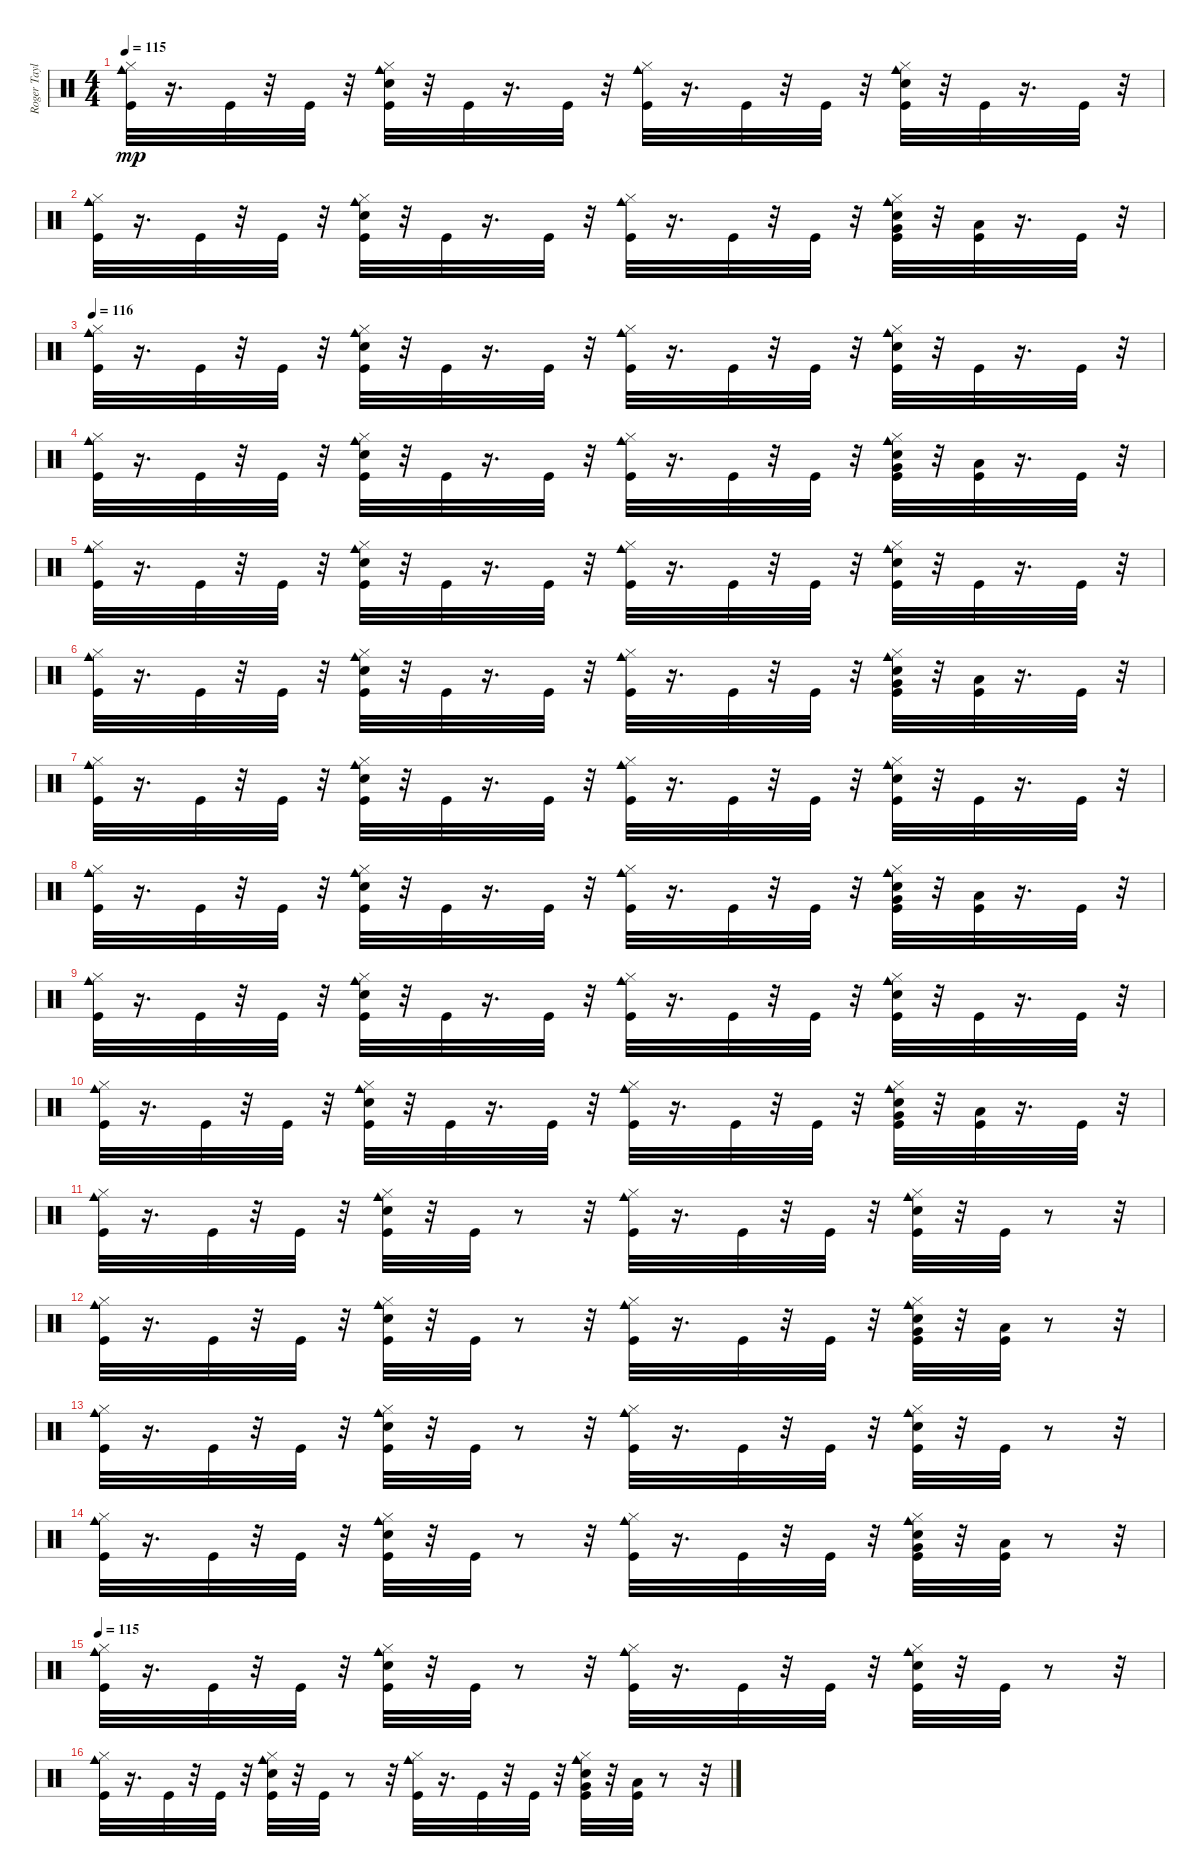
\track ("Roger Taylor" "Roger Tayl") {instrument percussion}
\staff {score}
\articulation defaults
\ts (4 4)
\tempo 115
\clef neutral
\ks c
("Cowbell medium (hit)" "Hi-Hat (closed)" "Kick (hit)").32{dy mp} r.16{d} "Kick (hit)".32 r.32 "Kick (hit)".32 r.32 ("Snare (hit)" "Cowbell medium (hit)" "Hi-Hat (closed)" "Kick (hit)").32 r.32 "Kick (hit)".32 r.16{d} "Kick (hit)".32 r.32 ("Cowbell medium (hit)" "Hi-Hat (closed)" "Kick (hit)").32 r.16{d} "Kick (hit)".32 r.32 "Kick (hit)".32 r.32 ("Hand Clap (hit)" "Cowbell medium (hit)" "Hi-Hat (closed)" "Kick (hit)").32 r.32 "Kick (hit)".32 r.16{d} "Kick (hit)".32 r.32 |
("Cowbell medium (hit)" "Hi-Hat (closed)" "Kick (hit)").32 r.16{d} "Kick (hit)".32 r.32 "Kick (hit)".32 r.32 ("Snare (hit)" "Cowbell medium (hit)" "Hi-Hat (closed)" "Kick (hit)").32 r.32 "Kick (hit)".32 r.16{d} "Kick (hit)".32 r.32 ("Cowbell medium (hit)" "Hi-Hat (closed)" "Kick (hit)").32 r.16{d} "Kick (hit)".32 r.32 "Kick (hit)".32 r.32 ("Very Low Tom (hit)" "Hand Clap (hit)" "Cowbell medium (hit)" "Hi-Hat (closed)" "Kick (hit)").32 r.32 ("Low Floor Tom (hit)" "Kick (hit)").32 r.16{d} "Kick (hit)".32 r.32 |
\tempo 116
("Cowbell medium (hit)" "Hi-Hat (closed)" "Kick (hit)").32 r.16{d} "Kick (hit)".32 r.32 "Kick (hit)".32 r.32 ("Snare (hit)" "Cowbell medium (hit)" "Hi-Hat (closed)" "Kick (hit)").32 r.32 "Kick (hit)".32 r.16{d} "Kick (hit)".32 r.32 ("Cowbell medium (hit)" "Hi-Hat (closed)" "Kick (hit)").32 r.16{d} "Kick (hit)".32 r.32 "Kick (hit)".32 r.32 ("Hand Clap (hit)" "Cowbell medium (hit)" "Hi-Hat (closed)" "Kick (hit)").32 r.32 "Kick (hit)".32 r.16{d} "Kick (hit)".32 r.32 |
("Cowbell medium (hit)" "Hi-Hat (closed)" "Kick (hit)").32 r.16{d} "Kick (hit)".32 r.32 "Kick (hit)".32 r.32 ("Snare (hit)" "Cowbell medium (hit)" "Hi-Hat (closed)" "Kick (hit)").32 r.32 "Kick (hit)".32 r.16{d} "Kick (hit)".32 r.32 ("Cowbell medium (hit)" "Hi-Hat (closed)" "Kick (hit)").32 r.16{d} "Kick (hit)".32 r.32 "Kick (hit)".32 r.32 ("Very Low Tom (hit)" "Hand Clap (hit)" "Cowbell medium (hit)" "Hi-Hat (closed)" "Kick (hit)").32 r.32 ("Low Floor Tom (hit)" "Kick (hit)").32 r.16{d} "Kick (hit)".32 r.32 |
("Cowbell medium (hit)" "Hi-Hat (closed)" "Kick (hit)").32 r.16{d} "Kick (hit)".32 r.32 "Kick (hit)".32 r.32 ("Snare (hit)" "Cowbell medium (hit)" "Hi-Hat (closed)" "Kick (hit)").32 r.32 "Kick (hit)".32 r.16{d} "Kick (hit)".32 r.32 ("Cowbell medium (hit)" "Hi-Hat (closed)" "Kick (hit)").32 r.16{d} "Kick (hit)".32 r.32 "Kick (hit)".32 r.32 ("Snare (hit)" "Cowbell medium (hit)" "Hi-Hat (closed)" "Kick (hit)").32 r.32 "Kick (hit)".32 r.16{d} "Kick (hit)".32 r.32 |
("Cowbell medium (hit)" "Hi-Hat (closed)" "Kick (hit)").32 r.16{d} "Kick (hit)".32 r.32 "Kick (hit)".32 r.32 ("Snare (hit)" "Cowbell medium (hit)" "Hi-Hat (closed)" "Kick (hit)").32 r.32 "Kick (hit)".32 r.16{d} "Kick (hit)".32 r.32 ("Cowbell medium (hit)" "Hi-Hat (closed)" "Kick (hit)").32 r.16{d} "Kick (hit)".32 r.32 "Kick (hit)".32 r.32 ("Very Low Tom (hit)" "Hand Clap (hit)" "Cowbell medium (hit)" "Hi-Hat (closed)" "Kick (hit)").32 r.32 ("Low Floor Tom (hit)" "Kick (hit)").32 r.16{d} "Kick (hit)".32 r.32 |
("Cowbell medium (hit)" "Hi-Hat (closed)" "Kick (hit)").32 r.16{d} "Kick (hit)".32 r.32 "Kick (hit)".32 r.32 ("Snare (hit)" "Cowbell medium (hit)" "Hi-Hat (closed)" "Kick (hit)").32 r.32 "Kick (hit)".32 r.16{d} "Kick (hit)".32 r.32 ("Cowbell medium (hit)" "Hi-Hat (closed)" "Kick (hit)").32 r.16{d} "Kick (hit)".32 r.32 "Kick (hit)".32 r.32 ("Snare (hit)" "Cowbell medium (hit)" "Hi-Hat (closed)" "Kick (hit)").32 r.32 "Kick (hit)".32 r.16{d} "Kick (hit)".32 r.32 |
("Cowbell medium (hit)" "Hi-Hat (closed)" "Kick (hit)").32 r.16{d} "Kick (hit)".32 r.32 "Kick (hit)".32 r.32 ("Snare (hit)" "Cowbell medium (hit)" "Hi-Hat (closed)" "Kick (hit)").32 r.32 "Kick (hit)".32 r.16{d} "Kick (hit)".32 r.32 ("Cowbell medium (hit)" "Hi-Hat (closed)" "Kick (hit)").32 r.16{d} "Kick (hit)".32 r.32 "Kick (hit)".32 r.32 ("Very Low Tom (hit)" "Hand Clap (hit)" "Cowbell medium (hit)" "Hi-Hat (closed)" "Kick (hit)").32 r.32 ("Low Floor Tom (hit)" "Kick (hit)").32 r.16{d} "Kick (hit)".32 r.32 |
("Cowbell medium (hit)" "Hi-Hat (closed)" "Kick (hit)").32 r.16{d} "Kick (hit)".32 r.32 "Kick (hit)".32 r.32 ("Snare (hit)" "Cowbell medium (hit)" "Hi-Hat (closed)" "Kick (hit)").32 r.32 "Kick (hit)".32 r.16{d} "Kick (hit)".32 r.32 ("Cowbell medium (hit)" "Hi-Hat (closed)" "Kick (hit)").32 r.16{d} "Kick (hit)".32 r.32 "Kick (hit)".32 r.32 ("Snare (hit)" "Cowbell medium (hit)" "Hi-Hat (closed)" "Kick (hit)").32 r.32 "Kick (hit)".32 r.16{d} "Kick (hit)".32 r.32 |
("Cowbell medium (hit)" "Hi-Hat (closed)" "Kick (hit)").32 r.16{d} "Kick (hit)".32 r.32 "Kick (hit)".32 r.32 ("Snare (hit)" "Cowbell medium (hit)" "Hi-Hat (closed)" "Kick (hit)").32 r.32 "Kick (hit)".32 r.16{d} "Kick (hit)".32 r.32 ("Cowbell medium (hit)" "Hi-Hat (closed)" "Kick (hit)").32 r.16{d} "Kick (hit)".32 r.32 "Kick (hit)".32 r.32 ("Very Low Tom (hit)" "Snare (hit)" "Cowbell medium (hit)" "Hi-Hat (closed)" "Kick (hit)").32 r.32 ("Low Floor Tom (hit)" "Kick (hit)").32 r.16{d} "Kick (hit)".32 r.32 |
("Cowbell medium (hit)" "Hi-Hat (closed)" "Kick (hit)").32 r.16{d} "Kick (hit)".32 r.32 "Kick (hit)".32 r.32 ("Snare (hit)" "Cowbell medium (hit)" "Hi-Hat (closed)" "Kick (hit)").32 r.32 "Kick (hit)".32 r.8 r.32 ("Cowbell medium (hit)" "Hi-Hat (closed)" "Kick (hit)").32 r.16{d} "Kick (hit)".32 r.32 "Kick (hit)".32 r.32 ("Hand Clap (hit)" "Cowbell medium (hit)" "Hi-Hat (closed)" "Kick (hit)").32 r.32 "Kick (hit)".32 r.8 r.32 |
("Cowbell medium (hit)" "Hi-Hat (closed)" "Kick (hit)").32 r.16{d} "Kick (hit)".32 r.32 "Kick (hit)".32 r.32 ("Snare (hit)" "Cowbell medium (hit)" "Hi-Hat (closed)" "Kick (hit)").32 r.32 "Kick (hit)".32 r.8 r.32 ("Cowbell medium (hit)" "Hi-Hat (closed)" "Kick (hit)").32 r.16{d} "Kick (hit)".32 r.32 "Kick (hit)".32 r.32 ("Very Low Tom (hit)" "Snare (hit)" "Cowbell medium (hit)" "Hi-Hat (closed)" "Kick (hit)").32 r.32 ("Low Floor Tom (hit)" "Kick (hit)").32 r.8 r.32 |
("Cowbell medium (hit)" "Hi-Hat (closed)" "Kick (hit)").32 r.16{d} "Kick (hit)".32 r.32 "Kick (hit)".32 r.32 ("Snare (hit)" "Cowbell medium (hit)" "Hi-Hat (closed)" "Kick (hit)").32 r.32 "Kick (hit)".32 r.8 r.32 ("Cowbell medium (hit)" "Hi-Hat (closed)" "Kick (hit)").32 r.16{d} "Kick (hit)".32 r.32 "Kick (hit)".32 r.32 ("Snare (hit)" "Cowbell medium (hit)" "Hi-Hat (closed)" "Kick (hit)").32 r.32 "Kick (hit)".32 r.8 r.32 |
("Cowbell medium (hit)" "Hi-Hat (closed)" "Kick (hit)").32 r.16{d} "Kick (hit)".32 r.32 "Kick (hit)".32 r.32 ("Snare (hit)" "Cowbell medium (hit)" "Hi-Hat (closed)" "Kick (hit)").32 r.32 "Kick (hit)".32 r.8 r.32 ("Cowbell medium (hit)" "Hi-Hat (closed)" "Kick (hit)").32 r.16{d} "Kick (hit)".32 r.32 "Kick (hit)".32 r.32 ("Very Low Tom (hit)" "Snare (hit)" "Cowbell medium (hit)" "Hi-Hat (closed)" "Kick (hit)").32 r.32 ("Low Floor Tom (hit)" "Kick (hit)").32 r.8 r.32 |
\tempo 115
("Cowbell medium (hit)" "Hi-Hat (closed)" "Kick (hit)").32 r.16{d} "Kick (hit)".32 r.32 "Kick (hit)".32 r.32 ("Hand Clap (hit)" "Cowbell medium (hit)" "Hi-Hat (closed)" "Kick (hit)").32 r.32 "Kick (hit)".32 r.8 r.32 ("Cowbell medium (hit)" "Hi-Hat (closed)" "Kick (hit)").32 r.16{d} "Kick (hit)".32 r.32 "Kick (hit)".32 r.32 ("Hand Clap (hit)" "Cowbell medium (hit)" "Hi-Hat (closed)" "Kick (hit)").32 r.32 "Kick (hit)".32 r.8 r.32 |
("Cowbell medium (hit)" "Hi-Hat (closed)" "Kick (hit)").32 r.16{d} "Kick (hit)".32 r.32 "Kick (hit)".32 r.32 ("Snare (hit)" "Cowbell medium (hit)" "Hi-Hat (closed)" "Kick (hit)").32 r.32 "Kick (hit)".32 r.8 r.32 ("Cowbell medium (hit)" "Hi-Hat (closed)" "Kick (hit)").32 r.16{d} "Kick (hit)".32 r.32 "Kick (hit)".32 r.32 ("Very Low Tom (hit)" "Snare (hit)" "Cowbell medium (hit)" "Hi-Hat (closed)" "Kick (hit)").32 r.32 ("Low Floor Tom (hit)" "Kick (hit)").32 r.8 r.32
